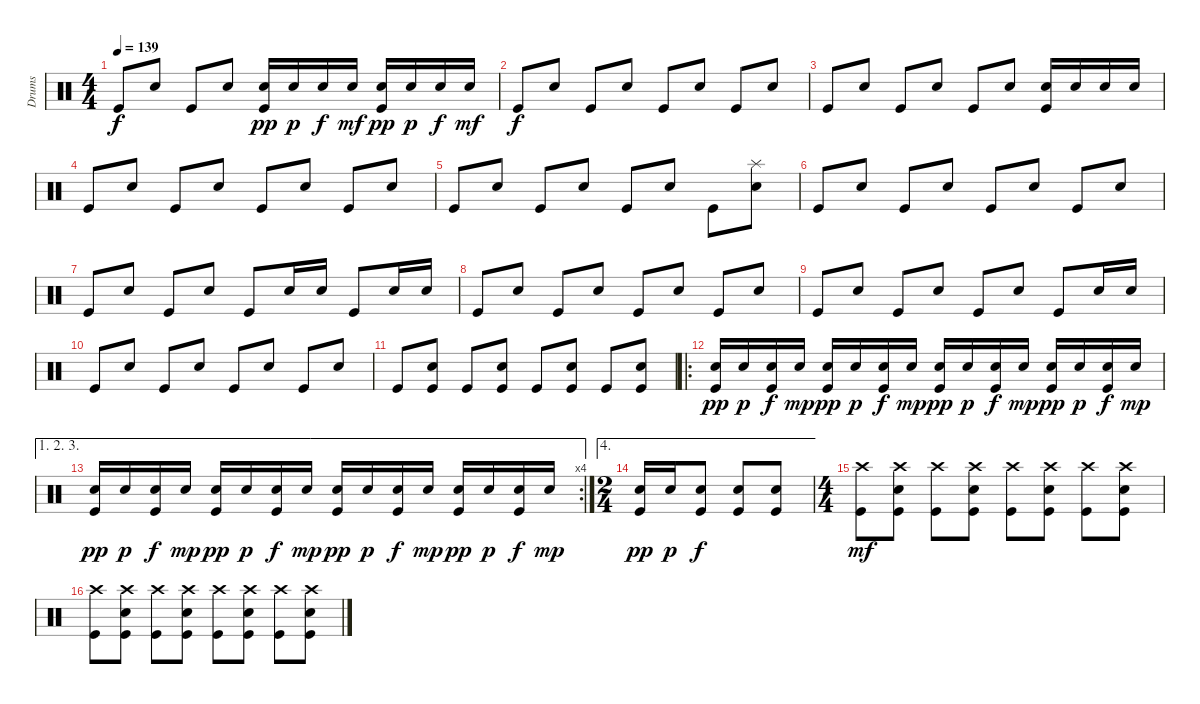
\track ("Drums" "Drums") {instrument percussion}
\staff {score}
\articulation defaults
\ts (4 4)
\tempo 139
\clef neutral
\ks c "Kick (hit)".8{dy f} "Snare (hit) 2".8 "Kick (hit)".8 "Snare (hit) 2".8
("Snare (hit) 2" "Kick (hit)").16{dy pp} "Snare (hit) 2".16{dy p} "Snare (hit) 2".16{dy f} "Snare (hit) 2".16{dy mf} ("Snare (hit) 2" "Kick (hit)").16{dy pp} "Snare (hit) 2".16{dy p} "Snare (hit) 2".16{dy f} "Snare (hit) 2".16{dy mf} |
"Kick (hit)".8{dy f} "Snare (hit) 2".8 "Kick (hit)".8 "Snare (hit) 2".8 "Kick (hit)".8 "Snare (hit) 2".8 "Kick (hit)".8 "Snare (hit) 2".8 |
"Kick (hit)".8 "Snare (hit) 2".8 "Kick (hit)".8 "Snare (hit) 2".8 "Kick (hit)".8 "Snare (hit) 2".8 ("Snare (hit) 2" "Kick (hit)").16 "Snare (hit) 2".16 "Snare (hit) 2".16 "Snare (hit) 2".16 |
"Kick (hit)".8 "Snare (hit) 2".8 "Kick (hit)".8 "Snare (hit) 2".8 "Kick (hit)".8 "Snare (hit) 2".8 "Kick (hit)".8 "Snare (hit) 2".8 |
"Kick (hit)".8 "Snare (hit) 2".8 "Kick (hit)".8 "Snare (hit) 2".8 "Kick (hit)".8 "Snare (hit) 2".8 "Kick (hit)".8 ("Splash (hit)" "Snare (hit) 2").8 |
"Kick (hit)".8 "Snare (hit) 2".8 "Kick (hit)".8 "Snare (hit) 2".8 "Kick (hit)".8 "Snare (hit) 2".8 "Kick (hit)".8 "Snare (hit) 2".8 |
"Kick (hit)".8 "Snare (hit) 2".8 "Kick (hit)".8 "Snare (hit) 2".8 "Kick (hit)".8 "Snare (hit) 2".16 "Snare (hit) 2".16 "Kick (hit)".8 "Snare (hit) 2".16 "Snare (hit) 2".16 |
"Kick (hit)".8 "Snare (hit) 2".8 "Kick (hit)".8 "Snare (hit) 2".8 "Kick (hit)".8 "Snare (hit) 2".8 "Kick (hit)".8 "Snare (hit) 2".8 |
"Kick (hit)".8 "Snare (hit) 2".8 "Kick (hit)".8 "Snare (hit) 2".8 "Kick (hit)".8 "Snare (hit) 2".8 "Kick (hit)".8 "Snare (hit) 2".16 "Snare (hit) 2".16 |
"Kick (hit)".8 "Snare (hit) 2".8 "Kick (hit)".8 "Snare (hit) 2".8 "Kick (hit)".8 "Snare (hit) 2".8 "Kick (hit)".8 "Snare (hit) 2".8 |
"Kick (hit)".8 ("Snare (hit) 2" "Kick (hit)").8 "Kick (hit)".8 ("Snare (hit) 2" "Kick (hit)").8 "Kick (hit)".8 ("Snare (hit) 2" "Kick (hit)").8 "Kick (hit)".8 ("Snare (hit) 2" "Kick (hit)").8 |
\ro
("Snare (hit) 2" "Kick (hit)").16{dy pp} "Snare (hit) 2".16{dy p} ("Snare (hit) 2" "Kick (hit)").16{dy f} "Snare (hit) 2".16{dy mp} ("Snare (hit) 2" "Kick (hit)").16{dy pp} "Snare (hit) 2".16{dy p} ("Snare (hit) 2" "Kick (hit)").16{dy f} "Snare (hit) 2".16{dy mp} ("Snare (hit) 2" "Kick (hit)").16{dy pp} "Snare (hit) 2".16{dy p} ("Snare (hit) 2" "Kick (hit)").16{dy f} "Snare (hit) 2".16{dy mp} ("Snare (hit) 2" "Kick (hit)").16{dy pp} "Snare (hit) 2".16{dy p} ("Snare (hit) 2" "Kick (hit)").16{dy f} "Snare (hit) 2".16{dy mp} |
\ae (1 2 3)
\rc 4
("Snare (hit) 2" "Kick (hit)").16{dy pp} "Snare (hit) 2".16{dy p} ("Snare (hit) 2" "Kick (hit)").16{dy f} "Snare (hit) 2".16{dy mp} ("Snare (hit) 2" "Kick (hit)").16{dy pp} "Snare (hit) 2".16{dy p} ("Snare (hit) 2" "Kick (hit)").16{dy f} "Snare (hit) 2".16{dy mp} ("Snare (hit) 2" "Kick (hit)").16{dy pp} "Snare (hit) 2".16{dy p} ("Snare (hit) 2" "Kick (hit)").16{dy f} "Snare (hit) 2".16{dy mp} ("Snare (hit) 2" "Kick (hit)").16{dy pp} "Snare (hit) 2".16{dy p} ("Snare (hit) 2" "Kick (hit)").16{dy f} "Snare (hit) 2".16{dy mp} |
\ae 4
\ts (2 4)
("Snare (hit) 2" "Kick (hit)").16{dy pp} "Snare (hit) 2".16{dy p} ("Snare (hit) 2" "Kick (hit)").8{dy f} ("Snare (hit) 2" "Kick (hit)").8 ("Snare (hit) 2" "Kick (hit)").8 |
\ts (4 4)
("Crash high (hit)" "Kick (hit)").8{dy mf} ("Crash high (hit)" "Snare (hit) 2" "Kick (hit)").8 ("Crash high (hit)" "Kick (hit)").8 ("Crash high (hit)" "Snare (hit) 2" "Kick (hit)").8 ("Crash high (hit)" "Kick (hit)").8 ("Crash high (hit)" "Snare (hit) 2" "Kick (hit)").8 ("Crash high (hit)" "Kick (hit)").8 ("Crash high (hit)" "Snare (hit) 2" "Kick (hit)").8 |
("Crash high (hit)" "Kick (hit)").8 ("Crash high (hit)" "Snare (hit) 2" "Kick (hit)").8 ("Crash high (hit)" "Kick (hit)").8 ("Crash high (hit)" "Snare (hit) 2" "Kick (hit)").8 ("Crash high (hit)" "Kick (hit)").8 ("Crash high (hit)" "Snare (hit) 2" "Kick (hit)").8 ("Crash high (hit)" "Kick (hit)").8 ("Crash high (hit)" "Snare (hit) 2" "Kick (hit)").8
